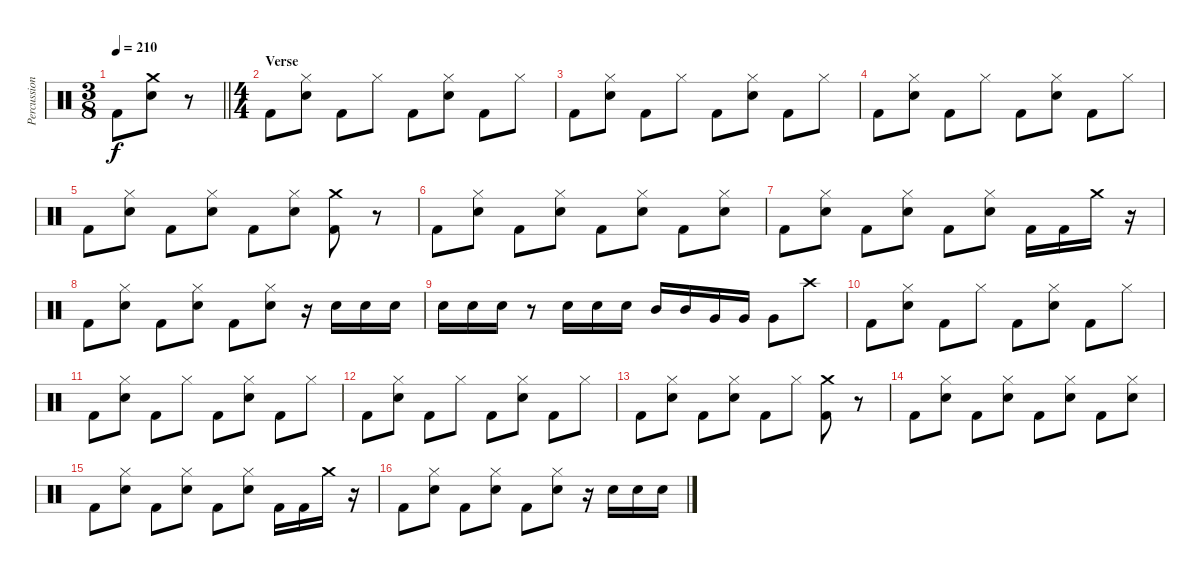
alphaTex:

\track ("Percussion" "Percussion") {instrument percussion}
\staff {score}
\articulation defaults
\ts (3 8)
\tempo 210
\clef neutral
\barLineRight lightlight
\ks c "Kick (hit) 2".8{dy f}
("Crash medium (hit)" "Electric Snare (hit)").8 r.8 |
\ts (4 4)
\section ("" "Verse")
"Kick (hit) 2".8 ("Hi-Hat (closed)" "Electric Snare (hit)").8 "Kick (hit) 2".8 "Hi-Hat (closed)".8 "Kick (hit) 2".8 ("Hi-Hat (closed)" "Electric Snare (hit)").8 "Kick (hit) 2".8 "Hi-Hat (closed)".8 |
"Kick (hit) 2".8 ("Hi-Hat (closed)" "Electric Snare (hit)").8 "Kick (hit) 2".8 "Hi-Hat (closed)".8 "Kick (hit) 2".8 ("Hi-Hat (closed)" "Electric Snare (hit)").8 "Kick (hit) 2".8 "Hi-Hat (closed)".8 |
"Kick (hit) 2".8 ("Hi-Hat (closed)" "Electric Snare (hit)").8 "Kick (hit) 2".8 "Hi-Hat (closed)".8 "Kick (hit) 2".8 ("Hi-Hat (closed)" "Electric Snare (hit)").8 "Kick (hit) 2".8 "Hi-Hat (closed)".8 |
"Kick (hit) 2".8 ("Hi-Hat (closed)" "Electric Snare (hit)").8 "Kick (hit) 2".8 ("Hi-Hat (closed)" "Electric Snare (hit)").8 "Kick (hit) 2".8 ("Hi-Hat (closed)" "Electric Snare (hit)").8 ("Crash medium (hit)" "Kick (hit) 2").8 r.8 |
"Kick (hit) 2".8 ("Hi-Hat (closed)" "Electric Snare (hit)").8 "Kick (hit) 2".8 ("Hi-Hat (closed)" "Electric Snare (hit)").8 "Kick (hit) 2".8 ("Hi-Hat (closed)" "Electric Snare (hit)").8 "Kick (hit) 2".8 ("Hi-Hat (closed)" "Electric Snare (hit)").8 |
"Kick (hit) 2".8 ("Hi-Hat (closed)" "Electric Snare (hit)").8 "Kick (hit) 2".8 ("Hi-Hat (closed)" "Electric Snare (hit)").8 "Kick (hit) 2".8 ("Hi-Hat (closed)" "Electric Snare (hit)").8 "Kick (hit) 2".16 "Kick (hit) 2".16 "Crash medium (hit)".16 r.16 |
"Kick (hit) 2".8 ("Hi-Hat (closed)" "Electric Snare (hit)").8 "Kick (hit) 2".8 ("Hi-Hat (closed)" "Electric Snare (hit)").8 "Kick (hit) 2".8 ("Hi-Hat (closed)" "Electric Snare (hit)").8 r.16 "Electric Snare (hit)".16 "Electric Snare (hit)".16 "Electric Snare (hit)".16 |
"Electric Snare (hit)".16 "Electric Snare (hit)".16 "Electric Snare (hit)".16 r.8 "Electric Snare (hit)".16 "Electric Snare (hit)".16 "Electric Snare (hit)".16 "Mid Tom (hit)".16 "Mid Tom (hit)".16 "Very Low Tom (hit)".16 "Very Low Tom (hit)".16 "Very Low Tom (hit)".8 "Crash high (hit)".8 |
"Kick (hit) 2".8 ("Hi-Hat (closed)" "Electric Snare (hit)").8 "Kick (hit) 2".8 "Hi-Hat (closed)".8 "Kick (hit) 2".8 ("Hi-Hat (closed)" "Electric Snare (hit)").8 "Kick (hit) 2".8 "Hi-Hat (closed)".8 |
"Kick (hit) 2".8 ("Hi-Hat (closed)" "Electric Snare (hit)").8 "Kick (hit) 2".8 "Hi-Hat (closed)".8 "Kick (hit) 2".8 ("Hi-Hat (closed)" "Electric Snare (hit)").8 "Kick (hit) 2".8 "Hi-Hat (closed)".8 |
"Kick (hit) 2".8 ("Hi-Hat (closed)" "Electric Snare (hit)").8 "Kick (hit) 2".8 "Hi-Hat (closed)".8 "Kick (hit) 2".8 ("Hi-Hat (closed)" "Electric Snare (hit)").8 "Kick (hit) 2".8 "Hi-Hat (closed)".8 |
"Kick (hit) 2".8 ("Hi-Hat (closed)" "Electric Snare (hit)").8 "Kick (hit) 2".8 ("Hi-Hat (closed)" "Electric Snare (hit)").8 "Kick (hit) 2".8 "Hi-Hat (closed)".8 ("Crash medium (hit)" "Kick (hit) 2").8 r.8 |
"Kick (hit) 2".8 ("Hi-Hat (closed)" "Electric Snare (hit)").8 "Kick (hit) 2".8 ("Hi-Hat (closed)" "Electric Snare (hit)").8 "Kick (hit) 2".8 ("Hi-Hat (closed)" "Electric Snare (hit)").8 "Kick (hit) 2".8 ("Hi-Hat (closed)" "Electric Snare (hit)").8 |
"Kick (hit) 2".8 ("Hi-Hat (closed)" "Electric Snare (hit)").8 "Kick (hit) 2".8 ("Hi-Hat (closed)" "Electric Snare (hit)").8 "Kick (hit) 2".8 ("Hi-Hat (closed)" "Electric Snare (hit)").8 "Kick (hit) 2".16 "Kick (hit) 2".16 "Crash medium (hit)".16 r.16 |
"Kick (hit) 2".8 ("Hi-Hat (closed)" "Electric Snare (hit)").8 "Kick (hit) 2".8 ("Hi-Hat (closed)" "Electric Snare (hit)").8 "Kick (hit) 2".8 ("Hi-Hat (closed)" "Electric Snare (hit)").8 r.16 "Electric Snare (hit)".16 "Electric Snare (hit)".16 "Electric Snare (hit)".16
